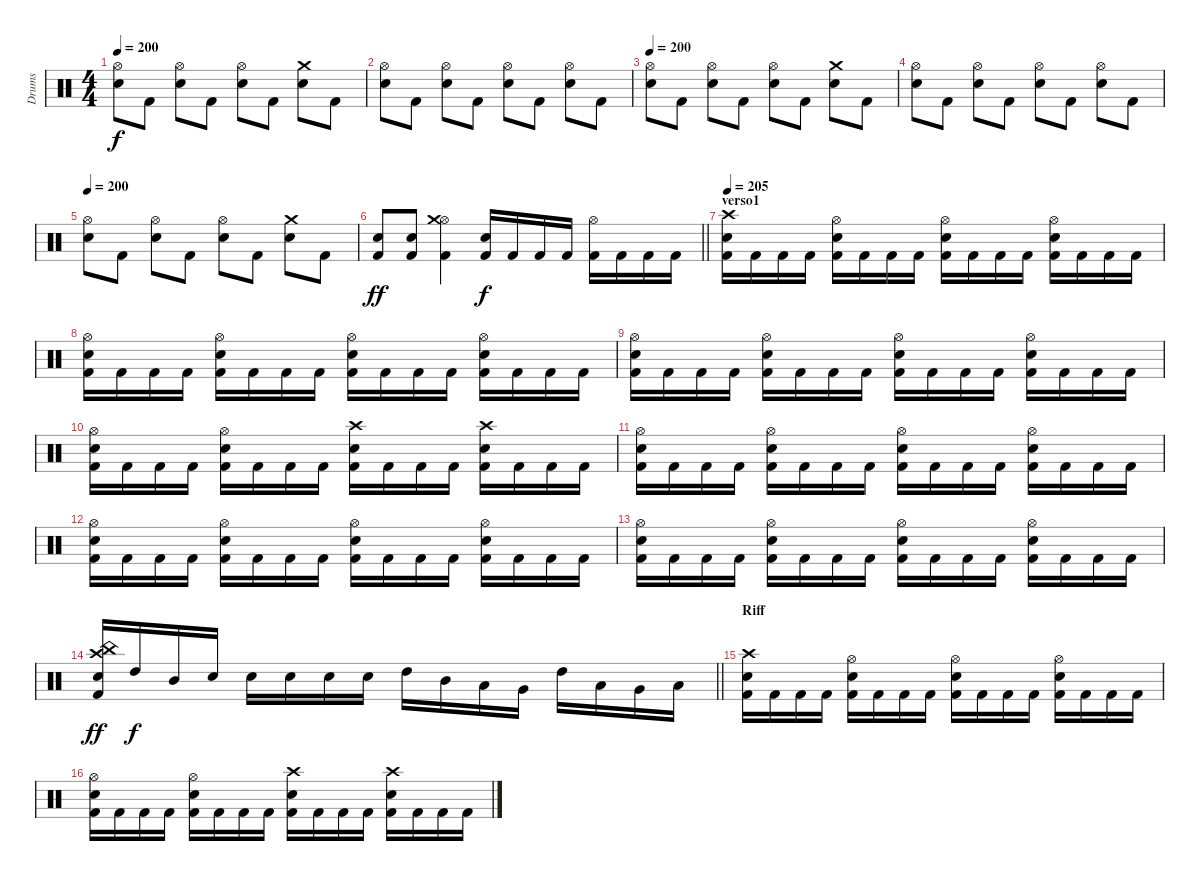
\track ("Drums" "Drums") {instrument percussion}
\staff {score}
\articulation defaults
\ts (4 4)
\tempo 200
\clef neutral
\ks c
("Hi-Hat (open)" "Electric Snare (hit)").8{dy f} "Kick (hit) 2".8 ("Hi-Hat (open)" "Electric Snare (hit)").8 "Kick (hit) 2".8 ("Hi-Hat (open)" "Electric Snare (hit)").8 "Kick (hit) 2".8 ("Crash medium (hit)" "Electric Snare (hit)").8 "Kick (hit) 2".8 |
("Hi-Hat (open)" "Electric Snare (hit)").8 "Kick (hit) 2".8 ("Hi-Hat (open)" "Electric Snare (hit)").8 "Kick (hit) 2".8 ("Hi-Hat (open)" "Electric Snare (hit)").8 "Kick (hit) 2".8 ("Hi-Hat (open)" "Electric Snare (hit)").8 "Kick (hit) 2".8 |
\tempo 200
("Hi-Hat (open)" "Electric Snare (hit)").8 "Kick (hit) 2".8 ("Hi-Hat (open)" "Electric Snare (hit)").8 "Kick (hit) 2".8 ("Hi-Hat (open)" "Electric Snare (hit)").8 "Kick (hit) 2".8 ("Crash medium (hit)" "Electric Snare (hit)").8 "Kick (hit) 2".8 |
("Hi-Hat (open)" "Electric Snare (hit)").8 "Kick (hit) 2".8 ("Hi-Hat (open)" "Electric Snare (hit)").8 "Kick (hit) 2".8 ("Hi-Hat (open)" "Electric Snare (hit)").8 "Kick (hit) 2".8 ("Hi-Hat (open)" "Electric Snare (hit)").8 "Kick (hit) 2".8 |
\tempo 200
("Hi-Hat (open)" "Electric Snare (hit)").8 "Kick (hit) 2".8 ("Hi-Hat (open)" "Electric Snare (hit)").8 "Kick (hit) 2".8 ("Hi-Hat (open)" "Electric Snare (hit)").8 "Kick (hit) 2".8 ("Crash medium (hit)" "Electric Snare (hit)").8 "Kick (hit) 2".8 |
\barLineRight lightlight
("Electric Snare (hit)" "Kick (hit) 2").8{dy ff} ("Electric Snare (hit)" "Kick (hit) 2").8 ("Kick (hit) 2" "Hi-Hat (open)" "Crash medium (hit)").4 ("Kick (hit) 2" "Electric Snare (hit)").16{dy f} "Kick (hit) 2".16 "Kick (hit) 2".16 "Kick (hit) 2".16 ("Kick (hit) 2" "Hi-Hat (open)").16 "Kick (hit) 2".16 "Kick (hit) 2".16 "Kick (hit) 2".16 |
\section ("" "verso1")
\tempo 205
("Kick (hit) 2" "Electric Snare (hit)" "Crash high (hit)").16 "Kick (hit) 2".16 "Kick (hit) 2".16 "Kick (hit) 2".16 ("Kick (hit) 2" "Electric Snare (hit)" "Hi-Hat (open)").16 "Kick (hit) 2".16 "Kick (hit) 2".16 "Kick (hit) 2".16 ("Kick (hit) 2" "Electric Snare (hit)" "Hi-Hat (open)").16 "Kick (hit) 2".16 "Kick (hit) 2".16 "Kick (hit) 2".16 ("Kick (hit) 2" "Electric Snare (hit)" "Hi-Hat (open)").16 "Kick (hit) 2".16 "Kick (hit) 2".16 "Kick (hit) 2".16 |
("Kick (hit) 2" "Electric Snare (hit)" "Hi-Hat (open)").16 "Kick (hit) 2".16 "Kick (hit) 2".16 "Kick (hit) 2".16 ("Kick (hit) 2" "Electric Snare (hit)" "Hi-Hat (open)").16 "Kick (hit) 2".16 "Kick (hit) 2".16 "Kick (hit) 2".16 ("Kick (hit) 2" "Electric Snare (hit)" "Hi-Hat (open)").16 "Kick (hit) 2".16 "Kick (hit) 2".16 "Kick (hit) 2".16 ("Kick (hit) 2" "Electric Snare (hit)" "Hi-Hat (open)").16 "Kick (hit) 2".16 "Kick (hit) 2".16 "Kick (hit) 2".16 |
("Kick (hit) 2" "Electric Snare (hit)" "Hi-Hat (open)").16 "Kick (hit) 2".16 "Kick (hit) 2".16 "Kick (hit) 2".16 ("Kick (hit) 2" "Electric Snare (hit)" "Hi-Hat (open)").16 "Kick (hit) 2".16 "Kick (hit) 2".16 "Kick (hit) 2".16 ("Kick (hit) 2" "Electric Snare (hit)" "Hi-Hat (open)").16 "Kick (hit) 2".16 "Kick (hit) 2".16 "Kick (hit) 2".16 ("Kick (hit) 2" "Electric Snare (hit)" "Hi-Hat (open)").16 "Kick (hit) 2".16 "Kick (hit) 2".16 "Kick (hit) 2".16 |
("Kick (hit) 2" "Electric Snare (hit)" "Hi-Hat (open)").16 "Kick (hit) 2".16 "Kick (hit) 2".16 "Kick (hit) 2".16 ("Kick (hit) 2" "Electric Snare (hit)" "Hi-Hat (open)").16 "Kick (hit) 2".16 "Kick (hit) 2".16 "Kick (hit) 2".16 ("Kick (hit) 2" "Electric Snare (hit)" "Crash high (hit)").16 "Kick (hit) 2".16 "Kick (hit) 2".16 "Kick (hit) 2".16 ("Kick (hit) 2" "Electric Snare (hit)" "Crash high (hit)").16 "Kick (hit) 2".16 "Kick (hit) 2".16 "Kick (hit) 2".16 |
("Kick (hit) 2" "Electric Snare (hit)" "Hi-Hat (open)").16 "Kick (hit) 2".16 "Kick (hit) 2".16 "Kick (hit) 2".16 ("Kick (hit) 2" "Electric Snare (hit)" "Hi-Hat (open)").16 "Kick (hit) 2".16 "Kick (hit) 2".16 "Kick (hit) 2".16 ("Kick (hit) 2" "Electric Snare (hit)" "Hi-Hat (open)").16 "Kick (hit) 2".16 "Kick (hit) 2".16 "Kick (hit) 2".16 ("Kick (hit) 2" "Electric Snare (hit)" "Hi-Hat (open)").16 "Kick (hit) 2".16 "Kick (hit) 2".16 "Kick (hit) 2".16 |
("Kick (hit) 2" "Electric Snare (hit)" "Hi-Hat (open)").16 "Kick (hit) 2".16 "Kick (hit) 2".16 "Kick (hit) 2".16 ("Kick (hit) 2" "Electric Snare (hit)" "Hi-Hat (open)").16 "Kick (hit) 2".16 "Kick (hit) 2".16 "Kick (hit) 2".16 ("Kick (hit) 2" "Electric Snare (hit)" "Hi-Hat (open)").16 "Kick (hit) 2".16 "Kick (hit) 2".16 "Kick (hit) 2".16 ("Kick (hit) 2" "Electric Snare (hit)" "Hi-Hat (open)").16 "Kick (hit) 2".16 "Kick (hit) 2".16 "Kick (hit) 2".16 |
("Kick (hit) 2" "Electric Snare (hit)" "Hi-Hat (open)").16 "Kick (hit) 2".16 "Kick (hit) 2".16 "Kick (hit) 2".16 ("Kick (hit) 2" "Electric Snare (hit)" "Hi-Hat (open)").16 "Kick (hit) 2".16 "Kick (hit) 2".16 "Kick (hit) 2".16 ("Kick (hit) 2" "Electric Snare (hit)" "Hi-Hat (open)").16 "Kick (hit) 2".16 "Kick (hit) 2".16 "Kick (hit) 2".16 ("Kick (hit) 2" "Electric Snare (hit)" "Hi-Hat (open)").16 "Kick (hit) 2".16 "Kick (hit) 2".16 "Kick (hit) 2".16 |
\barLineRight lightlight
("Crash high (hit)" "China (hit)" "Snare (hit) 2" "Kick (hit) 2").16{dy ff} "High Tom (hit)".16{dy f} "Mid Tom (hit)".16 "Snare (hit) 2".16 "Snare (hit) 2".16 "Snare (hit) 2".16 "Snare (hit) 2".16 "Snare (hit) 2".16 "High Tom (hit)".16 "Mid Tom (hit)".16 "Low Tom (hit)".16 "Very Low Tom (hit)".16 "High Tom (hit)".16 "Low Tom (hit)".16 "Very Low Tom (hit)".16 "Low Floor Tom (hit)".16 |
\section ("" "Riff")
("Kick (hit) 2" "Electric Snare (hit)" "Crash high (hit)").16 "Kick (hit) 2".16 "Kick (hit) 2".16 "Kick (hit) 2".16 ("Kick (hit) 2" "Electric Snare (hit)" "Hi-Hat (open)").16 "Kick (hit) 2".16 "Kick (hit) 2".16 "Kick (hit) 2".16 ("Kick (hit) 2" "Electric Snare (hit)" "Hi-Hat (open)").16 "Kick (hit) 2".16 "Kick (hit) 2".16 "Kick (hit) 2".16 ("Kick (hit) 2" "Electric Snare (hit)" "Hi-Hat (open)").16 "Kick (hit) 2".16 "Kick (hit) 2".16 "Kick (hit) 2".16 |
("Kick (hit) 2" "Electric Snare (hit)" "Hi-Hat (open)").16 "Kick (hit) 2".16 "Kick (hit) 2".16 "Kick (hit) 2".16 ("Kick (hit) 2" "Electric Snare (hit)" "Hi-Hat (open)").16 "Kick (hit) 2".16 "Kick (hit) 2".16 "Kick (hit) 2".16 ("Kick (hit) 2" "Electric Snare (hit)" "Crash high (hit)").16 "Kick (hit) 2".16 "Kick (hit) 2".16 "Kick (hit) 2".16 ("Kick (hit) 2" "Electric Snare (hit)" "Crash high (hit)").16 "Kick (hit) 2".16 "Kick (hit) 2".16 "Kick (hit) 2".16
